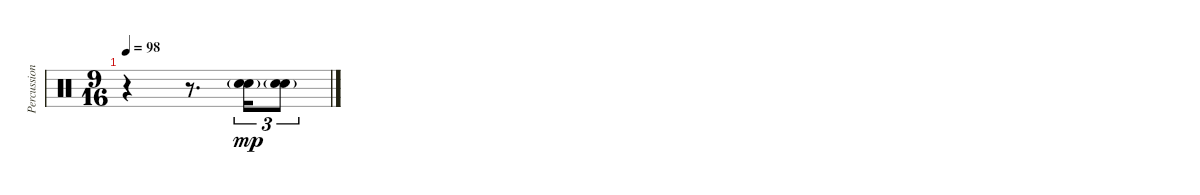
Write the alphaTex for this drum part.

\track ("Percussion" "Percussion") {instrument percussion}
\staff {score}
\articulation defaults
\ts (9 16)
\tempo 98
\clef neutral
\ks c
r.4{dy f} r.8{d} ("Snare (hit) 2" "Electric Snare (hit)"{g}).16{tu (3 2) dy mp} ("Snare (hit) 2" "Electric Snare (hit)"{g}).8{tu (3 2)}
